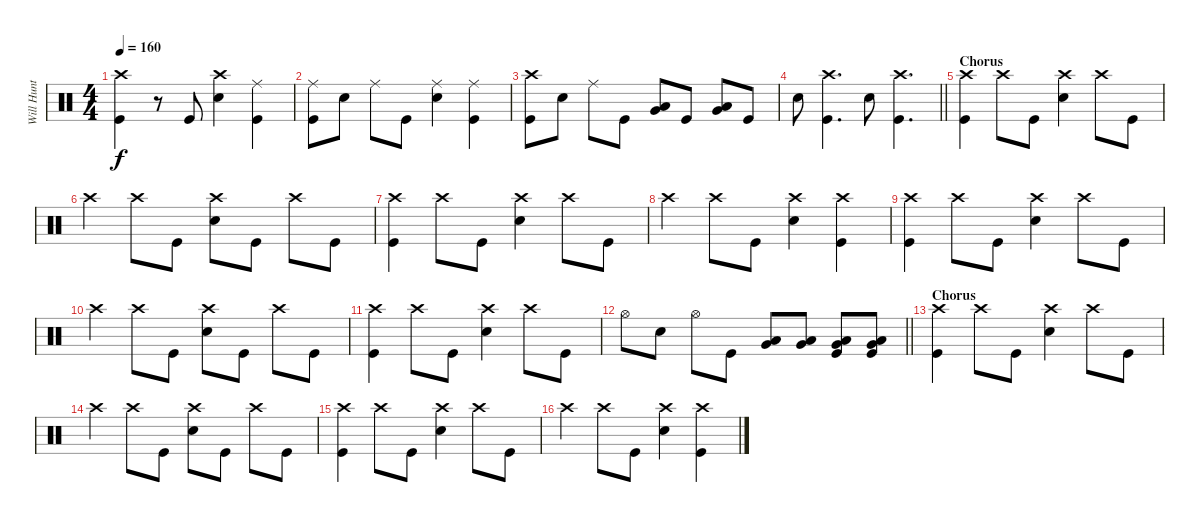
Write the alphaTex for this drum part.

\track ("Will Hunt" "Will Hunt") {instrument percussion}
\staff {score}
\articulation defaults
\ts (4 4)
\tempo 160
\clef neutral
\ks c
("Crash high (hit)" "Kick (hit)").4{dy f} r.8 "Kick (hit)".8 ("Crash high (hit)" "Snare (hit) 2").4 ("Ride (middle)" "Kick (hit)").4 |
("Ride (middle)" "Kick (hit)").8 "Snare (hit) 2".8 "Ride (middle)".8 "Kick (hit)".8 ("Ride (middle)" "Snare (hit) 2").4 ("Ride (middle)" "Kick (hit)").4 |
("Crash high (hit)" "Kick (hit)").8 "Snare (hit) 2".8 "Ride (middle)".8 "Kick (hit)".8 ("Low Tom (hit)" "Very Low Tom (hit)").8 "Kick (hit)".8 ("Very Low Tom (hit)" "Low Floor Tom (hit)").8 "Kick (hit)".8 |
\barLineRight lightlight "Snare (hit) 2".8
("Crash high (hit)" "Kick (hit)").4{d} "Snare (hit) 2".8 ("Crash high (hit)" "Kick (hit)").4{d} |
\section ("" "Chorus")
("Crash high (hit)" "Kick (hit)").4 "Crash high (hit)".8 "Kick (hit)".8 ("Crash high (hit)" "Snare (hit) 2").4 "Crash high (hit)".8 "Kick (hit)".8 |
"Crash high (hit)".4 "Crash high (hit)".8 "Kick (hit)".8 ("Crash high (hit)" "Snare (hit) 2").8 "Kick (hit)".8 "Crash high (hit)".8 "Kick (hit)".8 |
("Crash high (hit)" "Kick (hit)").4 "Crash high (hit)".8 "Kick (hit)".8 ("Crash high (hit)" "Snare (hit) 2").4 "Crash high (hit)".8 "Kick (hit)".8 |
"Crash high (hit)".4 "Crash high (hit)".8 "Kick (hit)".8 ("Crash high (hit)" "Snare (hit) 2").4 ("Crash high (hit)" "Kick (hit)").4 |
("Crash high (hit)" "Kick (hit)").4 "Crash high (hit)".8 "Kick (hit)".8 ("Crash high (hit)" "Snare (hit) 2").4 "Crash high (hit)".8 "Kick (hit)".8 |
"Crash high (hit)".4 "Crash high (hit)".8 "Kick (hit)".8 ("Crash high (hit)" "Snare (hit) 2").8 "Kick (hit)".8 "Crash high (hit)".8 "Kick (hit)".8 |
("Crash high (hit)" "Kick (hit)").4 "Crash high (hit)".8 "Kick (hit)".8 ("Crash high (hit)" "Snare (hit) 2").4 "Crash high (hit)".8 "Kick (hit)".8 |
\barLineRight lightlight "Hi-Hat (open)".8 "Snare (hit) 2".8 "Hi-Hat (open)".8 "Kick (hit)".8
("Very Low Tom (hit)" "Low Floor Tom (hit)").8 ("Very Low Tom (hit)" "Low Floor Tom (hit)").8 ("Very Low Tom (hit)" "Low Floor Tom (hit)" "Kick (hit)").8 ("Very Low Tom (hit)" "Low Floor Tom (hit)" "Kick (hit)").8 |
\section ("" "Chorus")
("Crash high (hit)" "Kick (hit)").4 "Crash high (hit)".8 "Kick (hit)".8 ("Crash high (hit)" "Snare (hit) 2").4 "Crash high (hit)".8 "Kick (hit)".8 |
"Crash high (hit)".4 "Crash high (hit)".8 "Kick (hit)".8 ("Crash high (hit)" "Snare (hit) 2").8 "Kick (hit)".8 "Crash high (hit)".8 "Kick (hit)".8 |
("Crash high (hit)" "Kick (hit)").4 "Crash high (hit)".8 "Kick (hit)".8 ("Crash high (hit)" "Snare (hit) 2").4 "Crash high (hit)".8 "Kick (hit)".8 |
"Crash high (hit)".4 "Crash high (hit)".8 "Kick (hit)".8 ("Crash high (hit)" "Snare (hit) 2").4 ("Crash high (hit)" "Kick (hit)").4
